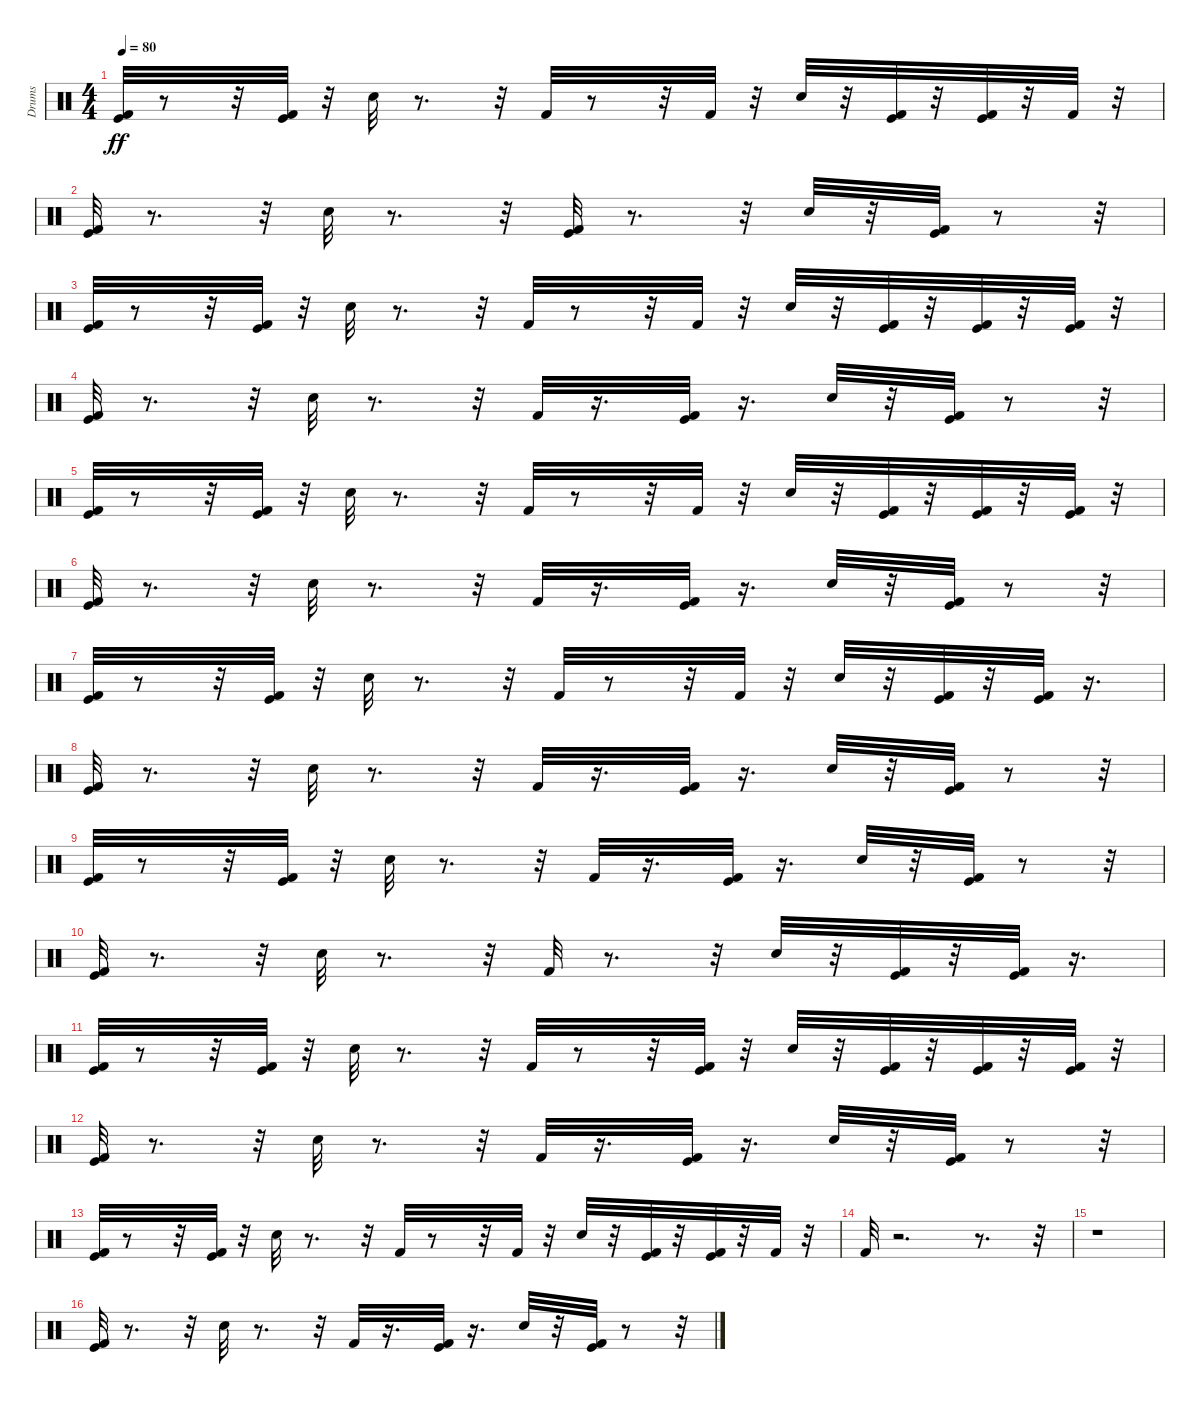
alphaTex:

\track ("Drums" "Drums") {instrument percussion}
\staff {score}
\articulation defaults
\ts (4 4)
\tempo 80
\clef neutral
\ks c
("Kick (hit)" "Kick (hit) 2").32{dy ff} r.8 r.32 ("Kick (hit)" "Kick (hit) 2").32 r.32 "Hand Clap (hit)".32 r.8{d} r.32 "Kick (hit) 2".32 r.8 r.32 "Kick (hit) 2".32 r.32 "Hand Clap (hit)".32 r.32 ("Kick (hit)" "Kick (hit) 2").32 r.32 ("Kick (hit)" "Kick (hit) 2").32 r.32 "Kick (hit) 2".32 r.32 |
("Kick (hit)" "Kick (hit) 2").32 r.8{d} r.32 "Hand Clap (hit)".32 r.8{d} r.32 ("Kick (hit)" "Kick (hit) 2").32 r.8{d} r.32 "Hand Clap (hit)".32 r.32 ("Kick (hit)" "Kick (hit) 2").32 r.8 r.32 |
("Kick (hit)" "Kick (hit) 2").32 r.8 r.32 ("Kick (hit)" "Kick (hit) 2").32 r.32 "Hand Clap (hit)".32 r.8{d} r.32 "Kick (hit) 2".32 r.8 r.32 "Kick (hit) 2".32 r.32 "Hand Clap (hit)".32 r.32 ("Kick (hit)" "Kick (hit) 2").32 r.32 ("Kick (hit)" "Kick (hit) 2").32 r.32 ("Kick (hit)" "Kick (hit) 2").32 r.32 |
("Kick (hit)" "Kick (hit) 2").32 r.8{d} r.32 "Hand Clap (hit)".32 r.8{d} r.32 "Kick (hit) 2".32 r.16{d} ("Kick (hit)" "Kick (hit) 2").32 r.16{d} "Hand Clap (hit)".32 r.32 ("Kick (hit)" "Kick (hit) 2").32 r.8 r.32 |
("Kick (hit)" "Kick (hit) 2").32 r.8 r.32 ("Kick (hit)" "Kick (hit) 2").32 r.32 "Hand Clap (hit)".32 r.8{d} r.32 "Kick (hit) 2".32 r.8 r.32 "Kick (hit) 2".32 r.32 "Hand Clap (hit)".32 r.32 ("Kick (hit)" "Kick (hit) 2").32 r.32 ("Kick (hit)" "Kick (hit) 2").32 r.32 ("Kick (hit)" "Kick (hit) 2").32 r.32 |
("Kick (hit)" "Kick (hit) 2").32 r.8{d} r.32 "Hand Clap (hit)".32 r.8{d} r.32 "Kick (hit) 2".32 r.16{d} ("Kick (hit)" "Kick (hit) 2").32 r.16{d} "Hand Clap (hit)".32 r.32 ("Kick (hit)" "Kick (hit) 2").32 r.8 r.32 |
("Kick (hit)" "Kick (hit) 2").32 r.8 r.32 ("Kick (hit)" "Kick (hit) 2").32 r.32 "Hand Clap (hit)".32 r.8{d} r.32 "Kick (hit) 2".32 r.8 r.32 "Kick (hit) 2".32 r.32 "Hand Clap (hit)".32 r.32 ("Kick (hit)" "Kick (hit) 2").32 r.32 ("Kick (hit)" "Kick (hit) 2").32 r.16{d} |
("Kick (hit)" "Kick (hit) 2").32 r.8{d} r.32 "Hand Clap (hit)".32 r.8{d} r.32 "Kick (hit) 2".32 r.16{d} ("Kick (hit)" "Kick (hit) 2").32 r.16{d} "Hand Clap (hit)".32 r.32 ("Kick (hit)" "Kick (hit) 2").32 r.8 r.32 |
("Kick (hit)" "Kick (hit) 2").32 r.8 r.32 ("Kick (hit)" "Kick (hit) 2").32 r.32 "Hand Clap (hit)".32 r.8{d} r.32 "Kick (hit) 2".32 r.16{d} ("Kick (hit)" "Kick (hit) 2").32 r.16{d} "Hand Clap (hit)".32 r.32 ("Kick (hit)" "Kick (hit) 2").32 r.8 r.32 |
("Kick (hit)" "Kick (hit) 2").32 r.8{d} r.32 "Hand Clap (hit)".32 r.8{d} r.32 "Kick (hit) 2".32 r.8{d} r.32 "Hand Clap (hit)".32 r.32 ("Kick (hit)" "Kick (hit) 2").32 r.32 ("Kick (hit)" "Kick (hit) 2").32 r.16{d} |
("Kick (hit)" "Kick (hit) 2").32 r.8 r.32 ("Kick (hit)" "Kick (hit) 2").32 r.32 "Hand Clap (hit)".32 r.8{d} r.32 "Kick (hit) 2".32 r.8 r.32 ("Kick (hit)" "Kick (hit) 2").32 r.32 "Hand Clap (hit)".32 r.32 ("Kick (hit)" "Kick (hit) 2").32 r.32 ("Kick (hit)" "Kick (hit) 2").32 r.32 ("Kick (hit)" "Kick (hit) 2").32 r.32 |
("Kick (hit)" "Kick (hit) 2").32 r.8{d} r.32 "Hand Clap (hit)".32 r.8{d} r.32 "Kick (hit) 2".32 r.16{d} ("Kick (hit)" "Kick (hit) 2").32 r.16{d} "Hand Clap (hit)".32 r.32 ("Kick (hit)" "Kick (hit) 2").32 r.8 r.32 |
("Kick (hit)" "Kick (hit) 2").32 r.8 r.32 ("Kick (hit)" "Kick (hit) 2").32 r.32 "Hand Clap (hit)".32 r.8{d} r.32 "Kick (hit) 2".32 r.8 r.32 "Kick (hit) 2".32 r.32 "Hand Clap (hit)".32 r.32 ("Kick (hit)" "Kick (hit) 2").32 r.32 ("Kick (hit)" "Kick (hit) 2").32 r.32 "Kick (hit) 2".32 r.32 |
"Kick (hit) 2".32 r.2{d} r.8{d} r.32 |
r.1 |
("Kick (hit)" "Kick (hit) 2").32 r.8{d} r.32 "Hand Clap (hit)".32 r.8{d} r.32 "Kick (hit) 2".32 r.16{d} ("Kick (hit)" "Kick (hit) 2").32 r.16{d} "Hand Clap (hit)".32 r.32 ("Kick (hit)" "Kick (hit) 2").32 r.8 r.32
